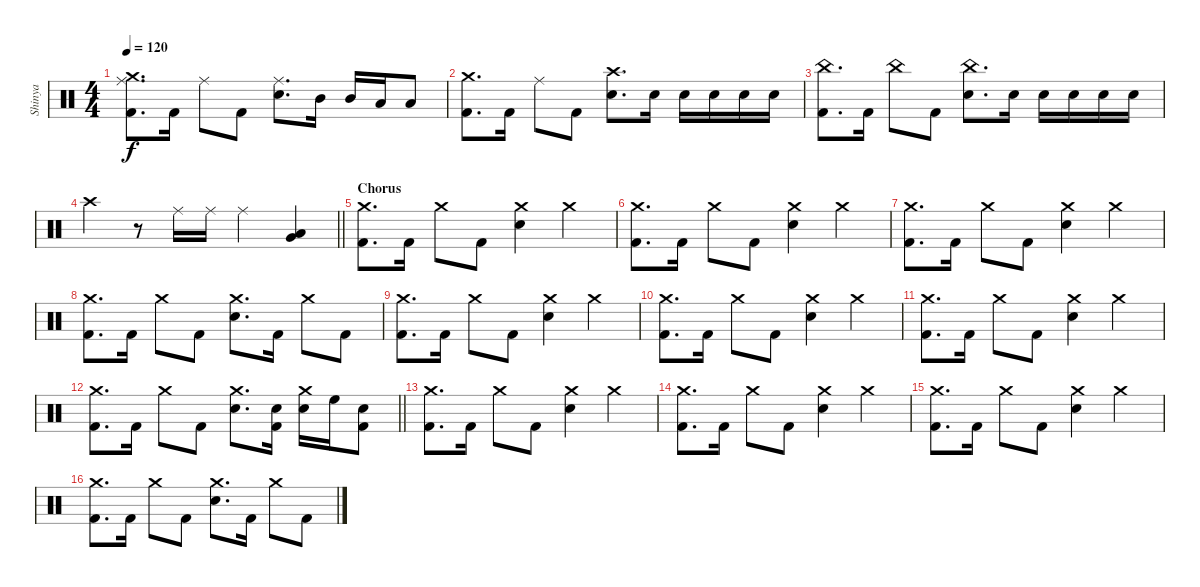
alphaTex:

\track ("Shinya" "Shinya") {instrument percussion}
\staff {score}
\articulation defaults
\ts (4 4)
\tempo 120
\clef neutral
\ks c
("Ride (middle)" "Crash medium (hit)" "Kick (hit) 2").8{d dy f} "Kick (hit) 2".16 "Ride (middle)".8 "Kick (hit) 2".8 ("Ride (middle)" "Electric Snare (hit)").8{d} "Mid Tom (hit)".16 "Mid Tom (hit)".16 "Low Tom (hit)".16 "Low Floor Tom (hit)".8 |
("Crash medium (hit)" "Kick (hit) 2").8{d} "Kick (hit) 2".16 "Ride (middle)".8 "Kick (hit) 2".8 ("Crash high (hit)" "Electric Snare (hit)").8{d} "Snare (hit) 2".16 "Electric Snare (hit)".16 "Electric Snare (hit)".16 "Electric Snare (hit)".16 "Electric Snare (hit)".16 |
("China (hit)" "Kick (hit) 2").8{d} "Kick (hit) 2".16 "China (hit)".8 "Kick (hit) 2".8 ("China (hit)" "Electric Snare (hit)").8{d} "Electric Snare (hit)".16 "Snare (hit) 2".16 "Snare (hit) 2".16 "Electric Snare (hit)".16 "Electric Snare (hit)".16 |
\barLineRight lightlight "Crash high (hit)".4
r.8 "Ride (middle)".16 "Ride (middle)".16 "Ride (middle)".4 ("Low Tom (hit)" "Very Low Tom (hit)").4 |
\section ("" "Chorus")
("Crash medium (hit)" "Kick (hit) 2").8{d} "Kick (hit) 2".16 "Crash medium (hit)".8 "Kick (hit) 2".8 ("Crash medium (hit)" "Electric Snare (hit)").4 "Crash medium (hit)".4 |
("Crash medium (hit)" "Kick (hit) 2").8{d} "Kick (hit) 2".16 "Crash medium (hit)".8 "Kick (hit) 2".8 ("Crash medium (hit)" "Electric Snare (hit)").4 "Crash medium (hit)".4 |
("Crash medium (hit)" "Kick (hit) 2").8{d} "Kick (hit) 2".16 "Crash medium (hit)".8 "Kick (hit) 2".8 ("Crash medium (hit)" "Electric Snare (hit)").4 "Crash medium (hit)".4 |
("Crash medium (hit)" "Kick (hit) 2").8{d} "Kick (hit) 2".16 "Crash medium (hit)".8 "Kick (hit) 2".8 ("Crash medium (hit)" "Electric Snare (hit)").8{d} "Kick (hit) 2".16 "Crash medium (hit)".8 "Kick (hit) 2".8 |
("Crash medium (hit)" "Kick (hit) 2").8{d} "Kick (hit) 2".16 "Crash medium (hit)".8 "Kick (hit) 2".8 ("Crash medium (hit)" "Electric Snare (hit)").4 "Crash medium (hit)".4 |
("Crash medium (hit)" "Kick (hit) 2").8{d} "Kick (hit) 2".16 "Crash medium (hit)".8 "Kick (hit) 2".8 ("Crash medium (hit)" "Electric Snare (hit)").4 "Crash medium (hit)".4 |
("Crash medium (hit)" "Kick (hit) 2").8{d} "Kick (hit) 2".16 "Crash medium (hit)".8 "Kick (hit) 2".8 ("Crash medium (hit)" "Electric Snare (hit)").4 "Crash medium (hit)".4 |
\barLineRight lightlight
("Crash medium (hit)" "Kick (hit) 2").8{d} "Kick (hit) 2".16 "Crash medium (hit)".8 "Kick (hit) 2".8 ("Crash medium (hit)" "Electric Snare (hit)").8{d} ("Snare (hit) 2" "Kick (hit) 2").16 ("Crash medium (hit)" "Snare (hit) 2").16 "High Floor Tom (hit)".16 ("Electric Snare (hit)" "Kick (hit) 2").8 |
("Crash medium (hit)" "Kick (hit) 2").8{d} "Kick (hit) 2".16 "Crash medium (hit)".8 "Kick (hit) 2".8 ("Crash medium (hit)" "Electric Snare (hit)").4 "Crash medium (hit)".4 |
("Crash medium (hit)" "Kick (hit) 2").8{d} "Kick (hit) 2".16 "Crash medium (hit)".8 "Kick (hit) 2".8 ("Crash medium (hit)" "Electric Snare (hit)").4 "Crash medium (hit)".4 |
("Crash medium (hit)" "Kick (hit) 2").8{d} "Kick (hit) 2".16 "Crash medium (hit)".8 "Kick (hit) 2".8 ("Crash medium (hit)" "Electric Snare (hit)").4 "Crash medium (hit)".4 |
("Crash medium (hit)" "Kick (hit) 2").8{d} "Kick (hit) 2".16 "Crash medium (hit)".8 "Kick (hit) 2".8 ("Crash medium (hit)" "Electric Snare (hit)").8{d} "Kick (hit) 2".16 "Crash medium (hit)".8 "Kick (hit) 2".8
